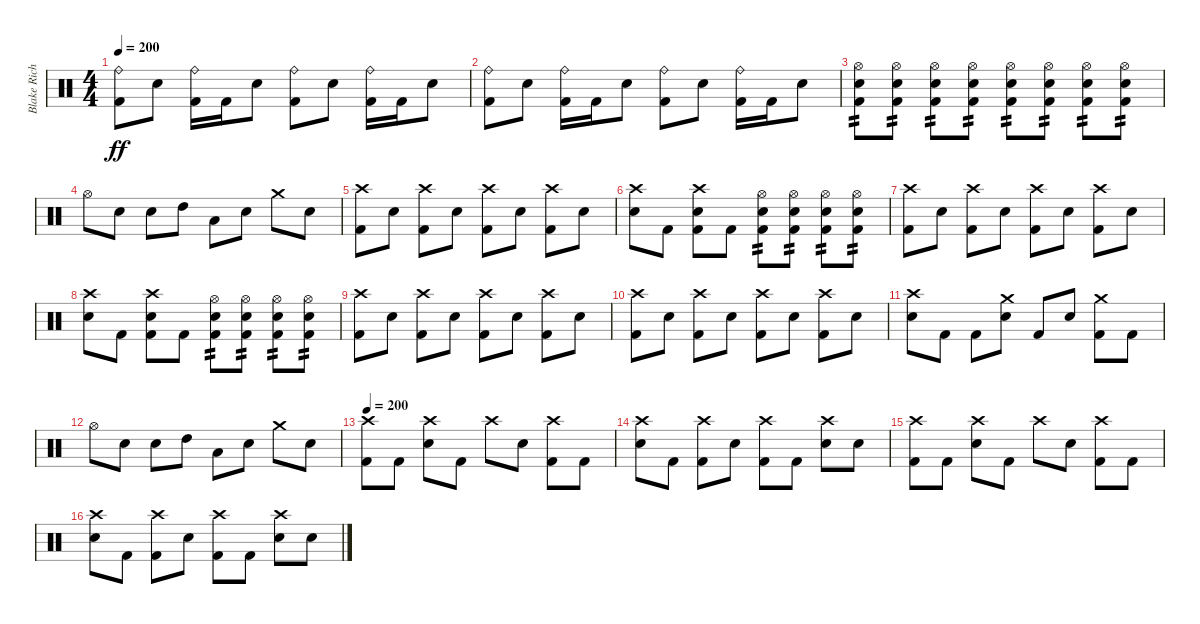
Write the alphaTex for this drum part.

\track ("Blake Richardson" "Blake Rich") {instrument percussion}
\staff {score}
\articulation defaults
\ts (4 4)
\tempo 200
\clef neutral
\ks c
("Ride (bell)" "Kick (hit) 2").8{dy ff} "Electric Snare (hit)".8 ("Ride (bell)" "Kick (hit) 2").16 "Kick (hit) 2".16 "Electric Snare (hit)".8 ("Ride (bell)" "Kick (hit) 2").8 "Electric Snare (hit)".8 ("Ride (bell)" "Kick (hit) 2").16 "Kick (hit) 2".16 "Electric Snare (hit)".8 |
("Ride (bell)" "Kick (hit) 2").8 "Electric Snare (hit)".8 ("Ride (bell)" "Kick (hit) 2").16 "Kick (hit) 2".16 "Electric Snare (hit)".8 ("Ride (bell)" "Kick (hit) 2").8 "Electric Snare (hit)".8 ("Ride (bell)" "Kick (hit) 2").16 "Kick (hit) 2".16 "Electric Snare (hit)".8 |
("Hi-Hat (open)" "Electric Snare (hit)" "Kick (hit) 2").8{tp 2} ("Hi-Hat (open)" "Electric Snare (hit)" "Kick (hit) 2").8{tp 2} ("Hi-Hat (open)" "Electric Snare (hit)" "Kick (hit) 2").8{tp 2} ("Hi-Hat (open)" "Electric Snare (hit)" "Kick (hit) 2").8{tp 2} ("Hi-Hat (open)" "Electric Snare (hit)" "Kick (hit) 2").8{tp 2} ("Hi-Hat (open)" "Electric Snare (hit)" "Kick (hit) 2").8{tp 2} ("Hi-Hat (open)" "Electric Snare (hit)" "Kick (hit) 2").8{tp 2} ("Hi-Hat (open)" "Electric Snare (hit)" "Kick (hit) 2").8{tp 2} |
"Hi-Hat (open)".8 "Electric Snare (hit)".8 "Electric Snare (hit)".8 "High Tom (hit)".8 "Low Tom (hit)".8 "Electric Snare (hit)".8 "Crash medium (hit)".8 "Electric Snare (hit)".8 |
("Crash high (hit)" "Kick (hit) 2").8 "Electric Snare (hit)".8 ("Crash high (hit)" "Kick (hit) 2").8 "Electric Snare (hit)".8 ("Crash high (hit)" "Kick (hit) 2").8 "Electric Snare (hit)".8 ("Crash high (hit)" "Kick (hit) 2").8 "Electric Snare (hit)".8 |
("Crash high (hit)" "Electric Snare (hit)").8 "Kick (hit) 2".8 ("Crash high (hit)" "Electric Snare (hit)" "Kick (hit) 2").8 "Kick (hit) 2".8 ("Hi-Hat (open)" "Electric Snare (hit)" "Kick (hit) 2").8{tp 2} ("Hi-Hat (open)" "Electric Snare (hit)" "Kick (hit) 2").8{tp 2} ("Hi-Hat (open)" "Electric Snare (hit)" "Kick (hit) 2").8{tp 2} ("Hi-Hat (open)" "Electric Snare (hit)" "Kick (hit) 2").8{tp 2} |
("Crash high (hit)" "Kick (hit) 2").8 "Electric Snare (hit)".8 ("Crash high (hit)" "Kick (hit) 2").8 "Electric Snare (hit)".8 ("Crash high (hit)" "Kick (hit) 2").8 "Electric Snare (hit)".8 ("Crash high (hit)" "Kick (hit) 2").8 "Electric Snare (hit)".8 |
("Crash high (hit)" "Electric Snare (hit)").8 "Kick (hit) 2".8 ("Crash high (hit)" "Electric Snare (hit)" "Kick (hit) 2").8 "Kick (hit) 2".8 ("Hi-Hat (open)" "Electric Snare (hit)" "Kick (hit) 2").8{tp 2} ("Hi-Hat (open)" "Electric Snare (hit)" "Kick (hit) 2").8{tp 2} ("Hi-Hat (open)" "Electric Snare (hit)" "Kick (hit) 2").8{tp 2} ("Hi-Hat (open)" "Electric Snare (hit)" "Kick (hit) 2").8{tp 2} |
("Crash high (hit)" "Kick (hit) 2").8 "Electric Snare (hit)".8 ("Crash high (hit)" "Kick (hit) 2").8 "Electric Snare (hit)".8 ("Crash high (hit)" "Kick (hit) 2").8 "Electric Snare (hit)".8 ("Crash high (hit)" "Kick (hit) 2").8 "Electric Snare (hit)".8 |
("Crash high (hit)" "Kick (hit) 2").8 "Electric Snare (hit)".8 ("Crash high (hit)" "Kick (hit) 2").8 "Electric Snare (hit)".8 ("Crash high (hit)" "Kick (hit) 2").8 "Electric Snare (hit)".8 ("Crash high (hit)" "Kick (hit) 2").8 "Electric Snare (hit)".8 |
("Crash high (hit)" "Electric Snare (hit)").8 "Kick (hit) 2".8 "Kick (hit) 2".8 ("Crash medium (hit)" "Electric Snare (hit)").8 "Kick (hit) 2".8 "Electric Snare (hit)".8 ("Crash medium (hit)" "Kick (hit) 2").8 "Kick (hit) 2".8 |
"Hi-Hat (open)".8 "Electric Snare (hit)".8 "Electric Snare (hit)".8 "High Tom (hit)".8 "Low Tom (hit)".8 "Electric Snare (hit)".8 "Crash medium (hit)".8 "Electric Snare (hit)".8 |
\tempo 200
("Crash high (hit)" "Kick (hit) 2").8 "Kick (hit) 2".8 ("Crash high (hit)" "Electric Snare (hit)").8 "Kick (hit) 2".8 "Crash high (hit)".8 "Electric Snare (hit)".8 ("Crash high (hit)" "Kick (hit) 2").8 "Kick (hit) 2".8 |
("Crash high (hit)" "Electric Snare (hit)").8 "Kick (hit) 2".8 ("Crash high (hit)" "Kick (hit) 2").8 "Electric Snare (hit)".8 ("Crash high (hit)" "Kick (hit) 2").8 "Kick (hit) 2".8 ("Crash high (hit)" "Electric Snare (hit)").8 "Electric Snare (hit)".8 |
("Crash high (hit)" "Kick (hit) 2").8 "Kick (hit) 2".8 ("Crash high (hit)" "Electric Snare (hit)").8 "Kick (hit) 2".8 "Crash high (hit)".8 "Electric Snare (hit)".8 ("Crash high (hit)" "Kick (hit) 2").8 "Kick (hit) 2".8 |
("Crash high (hit)" "Electric Snare (hit)").8 "Kick (hit) 2".8 ("Crash high (hit)" "Kick (hit) 2").8 "Electric Snare (hit)".8 ("Crash high (hit)" "Kick (hit) 2").8 "Kick (hit) 2".8 ("Crash high (hit)" "Electric Snare (hit)").8 "Electric Snare (hit)".8
